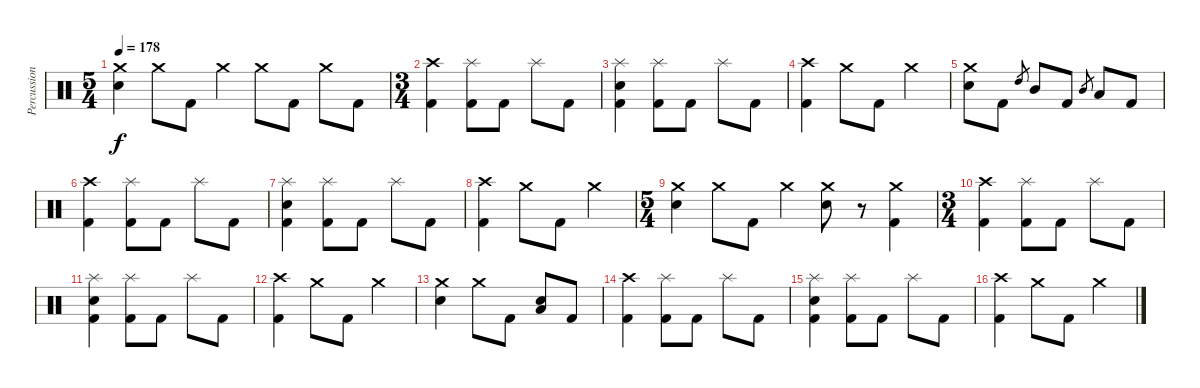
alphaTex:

\track ("Percussion" "Percussion") {instrument percussion}
\staff {score}
\articulation defaults
\ts (5 4)
\tempo 178
\clef neutral
\ks c
("Crash medium (hit)" "Electric Snare (hit)").4{dy f} "Crash medium (hit)".8 "Kick (hit) 2".8 "Crash medium (hit)".4 "Crash medium (hit)".8 "Kick (hit) 2".8 "Crash medium (hit)".8 "Kick (hit) 2".8 |
\ts (3 4)
("Crash high (hit)" "Kick (hit) 2").4 ("Splash (hit)" "Kick (hit) 2").8 "Kick (hit) 2".8 "Splash (hit)".8 "Kick (hit) 2".8 |
("Splash (hit)" "Electric Snare (hit)" "Kick (hit) 2").4 ("Splash (hit)" "Kick (hit) 2").8 "Kick (hit) 2".8 "Splash (hit)".8 "Kick (hit) 2".8 |
("Crash high (hit)" "Kick (hit) 2").4 "Crash medium (hit)".8 "Kick (hit) 2".8 "Crash medium (hit)".4 |
("Crash medium (hit)" "Electric Snare (hit)").8 "Kick (hit) 2".8 "High Tom (hit)".8{gr} "Mid Tom (hit)".8 "Kick (hit) 2".8 "Mid Tom (hit)".8{gr} "Low Tom (hit)".8 "Kick (hit) 2".8 |
("Crash high (hit)" "Kick (hit) 2").4 ("Splash (hit)" "Kick (hit) 2").8 "Kick (hit) 2".8 "Splash (hit)".8 "Kick (hit) 2".8 |
("Splash (hit)" "Electric Snare (hit)" "Kick (hit) 2").4 ("Splash (hit)" "Kick (hit) 2").8 "Kick (hit) 2".8 "Splash (hit)".8 "Kick (hit) 2".8 |
("Crash high (hit)" "Kick (hit) 2").4 "Crash medium (hit)".8 "Kick (hit) 2".8 "Crash medium (hit)".4 |
\ts (5 4)
("Crash medium (hit)" "Electric Snare (hit)").4 "Crash medium (hit)".8 "Kick (hit) 2".8 "Crash medium (hit)".4 ("Crash medium (hit)" "Electric Snare (hit)").8 r.8 ("Crash medium (hit)" "Kick (hit) 2").4 |
\ts (3 4)
("Crash high (hit)" "Kick (hit) 2").4 ("Splash (hit)" "Kick (hit) 2").8 "Kick (hit) 2".8 "Splash (hit)".8 "Kick (hit) 2".8 |
("Splash (hit)" "Electric Snare (hit)" "Kick (hit) 2").4 ("Splash (hit)" "Kick (hit) 2").8 "Kick (hit) 2".8 "Splash (hit)".8 "Kick (hit) 2".8 |
("Crash high (hit)" "Kick (hit) 2").4 "Crash medium (hit)".8 "Kick (hit) 2".8 "Crash medium (hit)".4 |
("Crash medium (hit)" "Electric Snare (hit)").4 "Crash medium (hit)".8 "Kick (hit) 2".8 ("Low Tom (hit)" "Electric Snare (hit)").8 "Kick (hit) 2".8 |
("Crash high (hit)" "Kick (hit) 2").4 ("Splash (hit)" "Kick (hit) 2").8 "Kick (hit) 2".8 "Splash (hit)".8 "Kick (hit) 2".8 |
("Splash (hit)" "Electric Snare (hit)" "Kick (hit) 2").4 ("Splash (hit)" "Kick (hit) 2").8 "Kick (hit) 2".8 "Splash (hit)".8 "Kick (hit) 2".8 |
("Crash high (hit)" "Kick (hit) 2").4 "Crash medium (hit)".8 "Kick (hit) 2".8 "Crash medium (hit)".4
